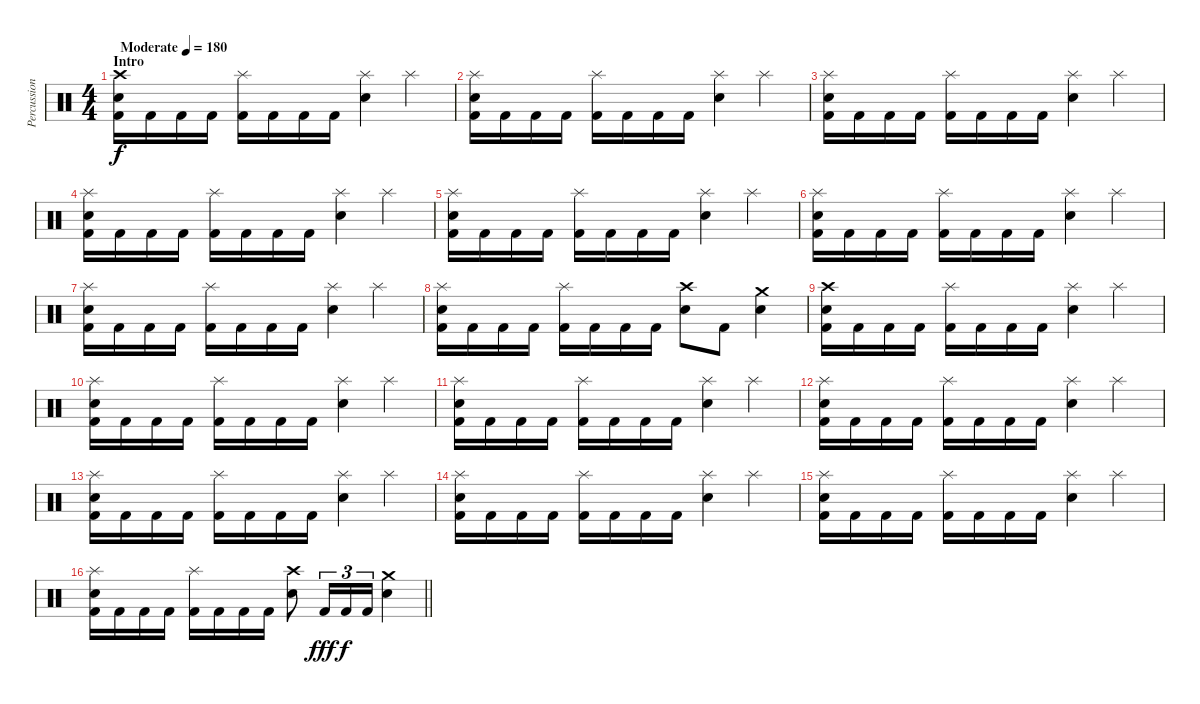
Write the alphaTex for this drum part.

\track ("Percussion" "Percussion") {instrument percussion}
\staff {score}
\articulation defaults
\ts (4 4)
\section ("" "Intro")
\tempo (180 "Moderate")
\clef neutral
\ks c
("Crash high (hit)" "Electric Snare (hit)" "Kick (hit) 2").16{dy f} "Kick (hit) 2".16 "Kick (hit) 2".16 "Kick (hit) 2".16 ("Splash (hit)" "Kick (hit) 2").16 "Kick (hit) 2".16 "Kick (hit) 2".16 "Kick (hit) 2".16 ("Splash (hit)" "Electric Snare (hit)").4 "Splash (hit)".4 |
("Splash (hit)" "Electric Snare (hit)" "Kick (hit) 2").16 "Kick (hit) 2".16 "Kick (hit) 2".16 "Kick (hit) 2".16 ("Splash (hit)" "Kick (hit) 2").16 "Kick (hit) 2".16 "Kick (hit) 2".16 "Kick (hit) 2".16 ("Splash (hit)" "Electric Snare (hit)").4 "Splash (hit)".4 |
("Splash (hit)" "Electric Snare (hit)" "Kick (hit) 2").16 "Kick (hit) 2".16 "Kick (hit) 2".16 "Kick (hit) 2".16 ("Splash (hit)" "Kick (hit) 2").16 "Kick (hit) 2".16 "Kick (hit) 2".16 "Kick (hit) 2".16 ("Splash (hit)" "Electric Snare (hit)").4 "Splash (hit)".4 |
("Splash (hit)" "Electric Snare (hit)" "Kick (hit) 2").16 "Kick (hit) 2".16 "Kick (hit) 2".16 "Kick (hit) 2".16 ("Splash (hit)" "Kick (hit) 2").16 "Kick (hit) 2".16 "Kick (hit) 2".16 "Kick (hit) 2".16 ("Splash (hit)" "Electric Snare (hit)").4 "Splash (hit)".4 |
("Splash (hit)" "Electric Snare (hit)" "Kick (hit) 2").16 "Kick (hit) 2".16 "Kick (hit) 2".16 "Kick (hit) 2".16 ("Splash (hit)" "Kick (hit) 2").16 "Kick (hit) 2".16 "Kick (hit) 2".16 "Kick (hit) 2".16 ("Splash (hit)" "Electric Snare (hit)").4 "Splash (hit)".4 |
("Splash (hit)" "Electric Snare (hit)" "Kick (hit) 2").16 "Kick (hit) 2".16 "Kick (hit) 2".16 "Kick (hit) 2".16 ("Splash (hit)" "Kick (hit) 2").16 "Kick (hit) 2".16 "Kick (hit) 2".16 "Kick (hit) 2".16 ("Splash (hit)" "Electric Snare (hit)").4 "Splash (hit)".4 |
("Splash (hit)" "Electric Snare (hit)" "Kick (hit) 2").16 "Kick (hit) 2".16 "Kick (hit) 2".16 "Kick (hit) 2".16 ("Splash (hit)" "Kick (hit) 2").16 "Kick (hit) 2".16 "Kick (hit) 2".16 "Kick (hit) 2".16 ("Splash (hit)" "Electric Snare (hit)").4 "Splash (hit)".4 |
("Splash (hit)" "Electric Snare (hit)" "Kick (hit) 2").16 "Kick (hit) 2".16 "Kick (hit) 2".16 "Kick (hit) 2".16 ("Splash (hit)" "Kick (hit) 2").16 "Kick (hit) 2".16 "Kick (hit) 2".16 "Kick (hit) 2".16 ("Crash high (hit)" "Electric Snare (hit)").8 "Kick (hit) 2".8 ("Crash medium (hit)" "Electric Snare (hit)").4 |
("Crash high (hit)" "Electric Snare (hit)" "Kick (hit) 2").16 "Kick (hit) 2".16 "Kick (hit) 2".16 "Kick (hit) 2".16 ("Splash (hit)" "Kick (hit) 2").16 "Kick (hit) 2".16 "Kick (hit) 2".16 "Kick (hit) 2".16 ("Splash (hit)" "Electric Snare (hit)").4 "Splash (hit)".4 |
("Splash (hit)" "Electric Snare (hit)" "Kick (hit) 2").16 "Kick (hit) 2".16 "Kick (hit) 2".16 "Kick (hit) 2".16 ("Splash (hit)" "Kick (hit) 2").16 "Kick (hit) 2".16 "Kick (hit) 2".16 "Kick (hit) 2".16 ("Splash (hit)" "Electric Snare (hit)").4 "Splash (hit)".4 |
("Splash (hit)" "Electric Snare (hit)" "Kick (hit) 2").16 "Kick (hit) 2".16 "Kick (hit) 2".16 "Kick (hit) 2".16 ("Splash (hit)" "Kick (hit) 2").16 "Kick (hit) 2".16 "Kick (hit) 2".16 "Kick (hit) 2".16 ("Splash (hit)" "Electric Snare (hit)").4 "Splash (hit)".4 |
("Splash (hit)" "Electric Snare (hit)" "Kick (hit) 2").16 "Kick (hit) 2".16 "Kick (hit) 2".16 "Kick (hit) 2".16 ("Splash (hit)" "Kick (hit) 2").16 "Kick (hit) 2".16 "Kick (hit) 2".16 "Kick (hit) 2".16 ("Splash (hit)" "Electric Snare (hit)").4 "Splash (hit)".4 |
("Splash (hit)" "Electric Snare (hit)" "Kick (hit) 2").16 "Kick (hit) 2".16 "Kick (hit) 2".16 "Kick (hit) 2".16 ("Splash (hit)" "Kick (hit) 2").16 "Kick (hit) 2".16 "Kick (hit) 2".16 "Kick (hit) 2".16 ("Splash (hit)" "Electric Snare (hit)").4 "Splash (hit)".4 |
("Splash (hit)" "Electric Snare (hit)" "Kick (hit) 2").16 "Kick (hit) 2".16 "Kick (hit) 2".16 "Kick (hit) 2".16 ("Splash (hit)" "Kick (hit) 2").16 "Kick (hit) 2".16 "Kick (hit) 2".16 "Kick (hit) 2".16 ("Splash (hit)" "Electric Snare (hit)").4 "Splash (hit)".4 |
("Splash (hit)" "Electric Snare (hit)" "Kick (hit) 2").16 "Kick (hit) 2".16 "Kick (hit) 2".16 "Kick (hit) 2".16 ("Splash (hit)" "Kick (hit) 2").16 "Kick (hit) 2".16 "Kick (hit) 2".16 "Kick (hit) 2".16 ("Splash (hit)" "Electric Snare (hit)").4 "Splash (hit)".4 |
\barLineRight lightlight
("Splash (hit)" "Electric Snare (hit)" "Kick (hit) 2").16 "Kick (hit) 2".16 "Kick (hit) 2".16 "Kick (hit) 2".16 ("Splash (hit)" "Kick (hit) 2").16 "Kick (hit) 2".16 "Kick (hit) 2".16 "Kick (hit) 2".16 ("Crash high (hit)" "Electric Snare (hit)").8 "Kick (hit) 2".16{tu (3 2) dy fff} "Kick (hit) 2".16{tu (3 2) dy f} "Kick (hit) 2".16{tu (3 2)} ("Crash medium (hit)" "Electric Snare (hit)").4
